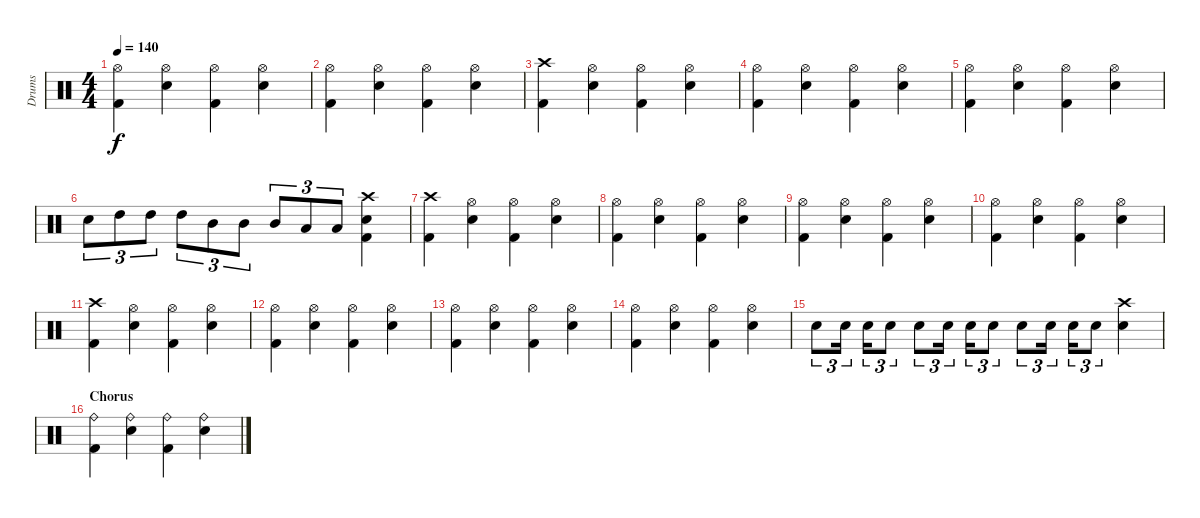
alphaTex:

\track ("Drums" "Drums") {instrument percussion}
\staff {score}
\articulation defaults
\ts (4 4)
\tempo 140
\clef neutral
\ks c
("Hi-Hat (open)" "Kick (hit) 2").4{dy f} ("Hi-Hat (open)" "Electric Snare (hit)").4 ("Hi-Hat (open)" "Kick (hit) 2").4 ("Hi-Hat (open)" "Electric Snare (hit)").4 |
("Hi-Hat (open)" "Kick (hit) 2").4 ("Hi-Hat (open)" "Electric Snare (hit)").4 ("Hi-Hat (open)" "Kick (hit) 2").4 ("Hi-Hat (open)" "Electric Snare (hit)").4 |
("Crash high (hit)" "Kick (hit) 2").4 ("Hi-Hat (open)" "Electric Snare (hit)").4 ("Hi-Hat (open)" "Kick (hit) 2").4 ("Hi-Hat (open)" "Electric Snare (hit)").4 |
("Hi-Hat (open)" "Kick (hit) 2").4 ("Hi-Hat (open)" "Electric Snare (hit)").4 ("Hi-Hat (open)" "Kick (hit) 2").4 ("Hi-Hat (open)" "Electric Snare (hit)").4 |
("Hi-Hat (open)" "Kick (hit) 2").4 ("Hi-Hat (open)" "Electric Snare (hit)").4 ("Hi-Hat (open)" "Kick (hit) 2").4 ("Hi-Hat (open)" "Electric Snare (hit)").4 |
"Electric Snare (hit)".8{tu (3 2)} "High Tom (hit)".8{tu (3 2)} "High Tom (hit)".8{tu (3 2)} "High Tom (hit)".8{tu (3 2)} "Mid Tom (hit)".8{tu (3 2)} "Mid Tom (hit)".8{tu (3 2)} "Mid Tom (hit)".8{tu (3 2)} "Low Tom (hit)".8{tu (3 2)} "Low Tom (hit)".8{tu (3 2)} ("Crash high (hit)" "Electric Snare (hit)" "Kick (hit) 2").4 |
("Crash high (hit)" "Kick (hit) 2").4 ("Hi-Hat (open)" "Electric Snare (hit)").4 ("Hi-Hat (open)" "Kick (hit) 2").4 ("Hi-Hat (open)" "Electric Snare (hit)").4 |
("Hi-Hat (open)" "Kick (hit) 2").4 ("Hi-Hat (open)" "Electric Snare (hit)").4 ("Hi-Hat (open)" "Kick (hit) 2").4 ("Hi-Hat (open)" "Electric Snare (hit)").4 |
("Hi-Hat (open)" "Kick (hit) 2").4 ("Hi-Hat (open)" "Electric Snare (hit)").4 ("Hi-Hat (open)" "Kick (hit) 2").4 ("Hi-Hat (open)" "Electric Snare (hit)").4 |
("Hi-Hat (open)" "Kick (hit) 2").4 ("Hi-Hat (open)" "Electric Snare (hit)").4 ("Hi-Hat (open)" "Kick (hit) 2").4 ("Hi-Hat (open)" "Electric Snare (hit)").4 |
("Crash high (hit)" "Kick (hit) 2").4 ("Hi-Hat (open)" "Electric Snare (hit)").4 ("Hi-Hat (open)" "Kick (hit) 2").4 ("Hi-Hat (open)" "Electric Snare (hit)").4 |
("Hi-Hat (open)" "Kick (hit) 2").4 ("Hi-Hat (open)" "Electric Snare (hit)").4 ("Hi-Hat (open)" "Kick (hit) 2").4 ("Hi-Hat (open)" "Electric Snare (hit)").4 |
("Hi-Hat (open)" "Kick (hit) 2").4 ("Hi-Hat (open)" "Electric Snare (hit)").4 ("Hi-Hat (open)" "Kick (hit) 2").4 ("Hi-Hat (open)" "Electric Snare (hit)").4 |
("Hi-Hat (open)" "Kick (hit) 2").4 ("Hi-Hat (open)" "Electric Snare (hit)").4 ("Hi-Hat (open)" "Kick (hit) 2").4 ("Hi-Hat (open)" "Electric Snare (hit)").4 |
\section ("" "")
"Electric Snare (hit)".8{tu (3 2)} "Electric Snare (hit)".16{tu (3 2)} "Electric Snare (hit)".16{tu (3 2)} "Electric Snare (hit)".8{tu (3 2)} "Electric Snare (hit)".8{tu (3 2)} "Electric Snare (hit)".16{tu (3 2)} "Electric Snare (hit)".16{tu (3 2)} "Electric Snare (hit)".8{tu (3 2)} "Electric Snare (hit)".8{tu (3 2)} "Electric Snare (hit)".16{tu (3 2)} "Electric Snare (hit)".16{tu (3 2)} "Electric Snare (hit)".8{tu (3 2)} ("Crash high (hit)" "Electric Snare (hit)").4 |
\section ("" "Chorus")
("Ride (bell)" "Kick (hit) 2").4 ("Ride (bell)" "Electric Snare (hit)").4 ("Ride (bell)" "Kick (hit) 2").4 ("Ride (bell)" "Electric Snare (hit)").4
